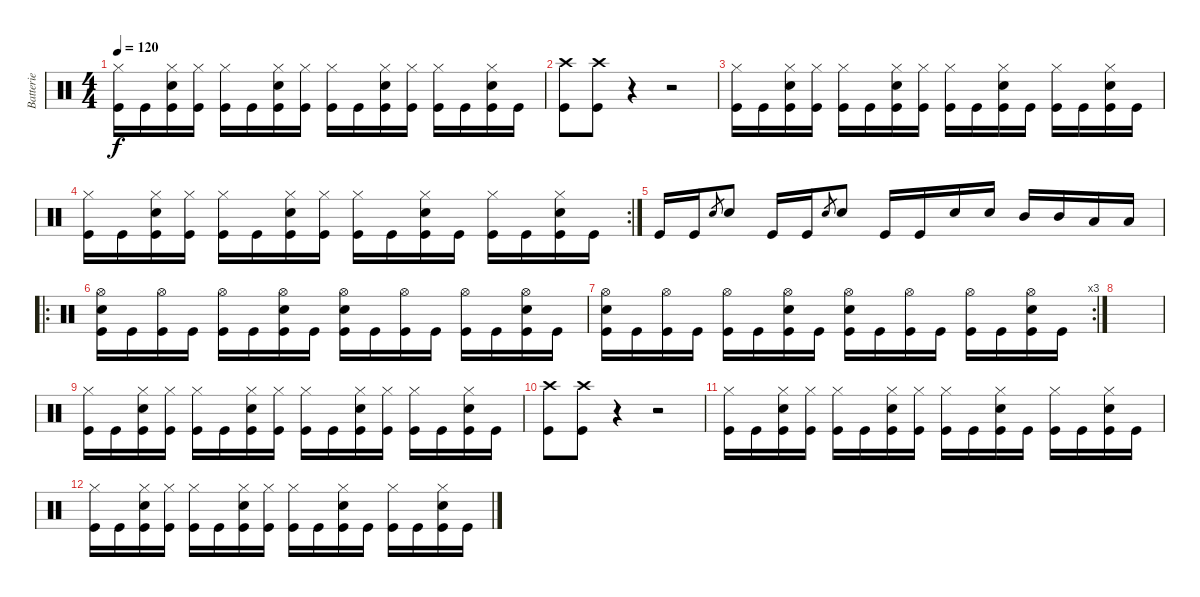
\track ("Batterie" "Batterie") {instrument percussion}
\staff {score}
\articulation defaults
\ts (4 4)
\tempo 120
\clef neutral
\ks c
("Kick (hit)" "Hi-Hat (closed)").16{dy f} "Kick (hit)".16 ("Kick (hit)" "Snare (hit) 2" "Hi-Hat (closed)").16 ("Kick (hit)" "Hi-Hat (closed)").16 ("Kick (hit)" "Hi-Hat (closed)").16 "Kick (hit)".16 ("Kick (hit)" "Snare (hit) 2" "Hi-Hat (closed)").16 ("Kick (hit)" "Hi-Hat (closed)").16 ("Kick (hit)" "Hi-Hat (closed)").16 "Kick (hit)".16 ("Kick (hit)" "Snare (hit) 2" "Hi-Hat (closed)").16 ("Kick (hit)" "Hi-Hat (closed)").16 ("Kick (hit)" "Hi-Hat (closed)").16 "Kick (hit)".16 ("Kick (hit)" "Snare (hit) 2" "Hi-Hat (closed)").16 "Kick (hit)".16 |
("Crash high (hit)" "Kick (hit)").8 ("Crash high (hit)" "Kick (hit)").8 r.4 r.2 |
("Kick (hit)" "Hi-Hat (closed)").16 "Kick (hit)".16 ("Kick (hit)" "Snare (hit) 2" "Hi-Hat (closed)").16 ("Kick (hit)" "Hi-Hat (closed)").16 ("Kick (hit)" "Hi-Hat (closed)").16 "Kick (hit)".16 ("Kick (hit)" "Snare (hit) 2" "Hi-Hat (closed)").16 ("Kick (hit)" "Hi-Hat (closed)").16 ("Kick (hit)" "Hi-Hat (closed)").16 "Kick (hit)".16 ("Kick (hit)" "Snare (hit) 2" "Hi-Hat (closed)").16 "Kick (hit)".16 ("Kick (hit)" "Hi-Hat (closed)").16 "Kick (hit)".16 ("Kick (hit)" "Snare (hit) 2" "Hi-Hat (closed)").16 "Kick (hit)".16 |
\rc 2
("Kick (hit)" "Hi-Hat (closed)").16 "Kick (hit)".16 ("Kick (hit)" "Snare (hit) 2" "Hi-Hat (closed)").16 ("Kick (hit)" "Hi-Hat (closed)").16 ("Kick (hit)" "Hi-Hat (closed)").16 "Kick (hit)".16 ("Kick (hit)" "Snare (hit) 2" "Hi-Hat (closed)").16 ("Kick (hit)" "Hi-Hat (closed)").16 ("Kick (hit)" "Hi-Hat (closed)").16 "Kick (hit)".16 ("Kick (hit)" "Snare (hit) 2" "Hi-Hat (closed)").16 "Kick (hit)".16 ("Kick (hit)" "Hi-Hat (closed)").16 "Kick (hit)".16 ("Kick (hit)" "Snare (hit) 2" "Hi-Hat (closed)").16 "Kick (hit)".16 |
"Kick (hit)".16 "Kick (hit)".16 "Snare (hit) 2".8{gr} "Snare (hit) 2".8 "Kick (hit)".16 "Kick (hit)".16 "Snare (hit) 2".8{gr} "Snare (hit) 2".8 "Kick (hit)".16 "Kick (hit)".16 "Snare (hit) 2".16 "Snare (hit) 2".16 "Mid Tom (hit)".16 "Mid Tom (hit)".16 "Low Tom (hit)".16 "Low Tom (hit)".16 |
\ro
("Hi-Hat (open)" "Snare (hit) 2" "Kick (hit)").16 "Kick (hit)".16 ("Hi-Hat (open)" "Kick (hit)").16 "Kick (hit)".16 ("Kick (hit)" "Hi-Hat (open)").16 "Kick (hit)".16 ("Snare (hit) 2" "Hi-Hat (open)" "Kick (hit)").16 "Kick (hit)".16 ("Snare (hit) 2" "Kick (hit)" "Hi-Hat (open)").16 "Kick (hit)".16 ("Hi-Hat (open)" "Kick (hit)").16 "Kick (hit)".16 ("Hi-Hat (open)" "Kick (hit)").16 "Kick (hit)".16 ("Snare (hit) 2" "Hi-Hat (open)" "Kick (hit)").16 "Kick (hit)".16 |
\rc 3
("Hi-Hat (open)" "Snare (hit) 2" "Kick (hit)").16 "Kick (hit)".16 ("Hi-Hat (open)" "Kick (hit)").16 "Kick (hit)".16 ("Kick (hit)" "Hi-Hat (open)").16 "Kick (hit)".16 ("Snare (hit) 2" "Hi-Hat (open)" "Kick (hit)").16 "Kick (hit)".16 ("Snare (hit) 2" "Kick (hit)" "Hi-Hat (open)").16 "Kick (hit)".16 ("Hi-Hat (open)" "Kick (hit)").16 "Kick (hit)".16 ("Hi-Hat (open)" "Kick (hit)").16 "Kick (hit)".16 ("Snare (hit) 2" "Hi-Hat (open)" "Kick (hit)").16 "Kick (hit)".16 |
|
("Kick (hit)" "Hi-Hat (closed)").16 "Kick (hit)".16 ("Kick (hit)" "Snare (hit) 2" "Hi-Hat (closed)").16 ("Kick (hit)" "Hi-Hat (closed)").16 ("Kick (hit)" "Hi-Hat (closed)").16 "Kick (hit)".16 ("Kick (hit)" "Snare (hit) 2" "Hi-Hat (closed)").16 ("Kick (hit)" "Hi-Hat (closed)").16 ("Kick (hit)" "Hi-Hat (closed)").16 "Kick (hit)".16 ("Kick (hit)" "Snare (hit) 2" "Hi-Hat (closed)").16 ("Kick (hit)" "Hi-Hat (closed)").16 ("Kick (hit)" "Hi-Hat (closed)").16 "Kick (hit)".16 ("Kick (hit)" "Snare (hit) 2" "Hi-Hat (closed)").16 "Kick (hit)".16 |
("Crash high (hit)" "Kick (hit)").8 ("Crash high (hit)" "Kick (hit)").8 r.4 r.2 |
("Kick (hit)" "Hi-Hat (closed)").16 "Kick (hit)".16 ("Kick (hit)" "Snare (hit) 2" "Hi-Hat (closed)").16 ("Kick (hit)" "Hi-Hat (closed)").16 ("Kick (hit)" "Hi-Hat (closed)").16 "Kick (hit)".16 ("Kick (hit)" "Snare (hit) 2" "Hi-Hat (closed)").16 ("Kick (hit)" "Hi-Hat (closed)").16 ("Kick (hit)" "Hi-Hat (closed)").16 "Kick (hit)".16 ("Kick (hit)" "Snare (hit) 2" "Hi-Hat (closed)").16 "Kick (hit)".16 ("Kick (hit)" "Hi-Hat (closed)").16 "Kick (hit)".16 ("Kick (hit)" "Snare (hit) 2" "Hi-Hat (closed)").16 "Kick (hit)".16 |
("Kick (hit)" "Hi-Hat (closed)").16 "Kick (hit)".16 ("Kick (hit)" "Snare (hit) 2" "Hi-Hat (closed)").16 ("Kick (hit)" "Hi-Hat (closed)").16 ("Kick (hit)" "Hi-Hat (closed)").16 "Kick (hit)".16 ("Kick (hit)" "Snare (hit) 2" "Hi-Hat (closed)").16 ("Kick (hit)" "Hi-Hat (closed)").16 ("Kick (hit)" "Hi-Hat (closed)").16 "Kick (hit)".16 ("Kick (hit)" "Snare (hit) 2" "Hi-Hat (closed)").16 "Kick (hit)".16 ("Kick (hit)" "Hi-Hat (closed)").16 "Kick (hit)".16 ("Kick (hit)" "Snare (hit) 2" "Hi-Hat (closed)").16 "Kick (hit)".16
